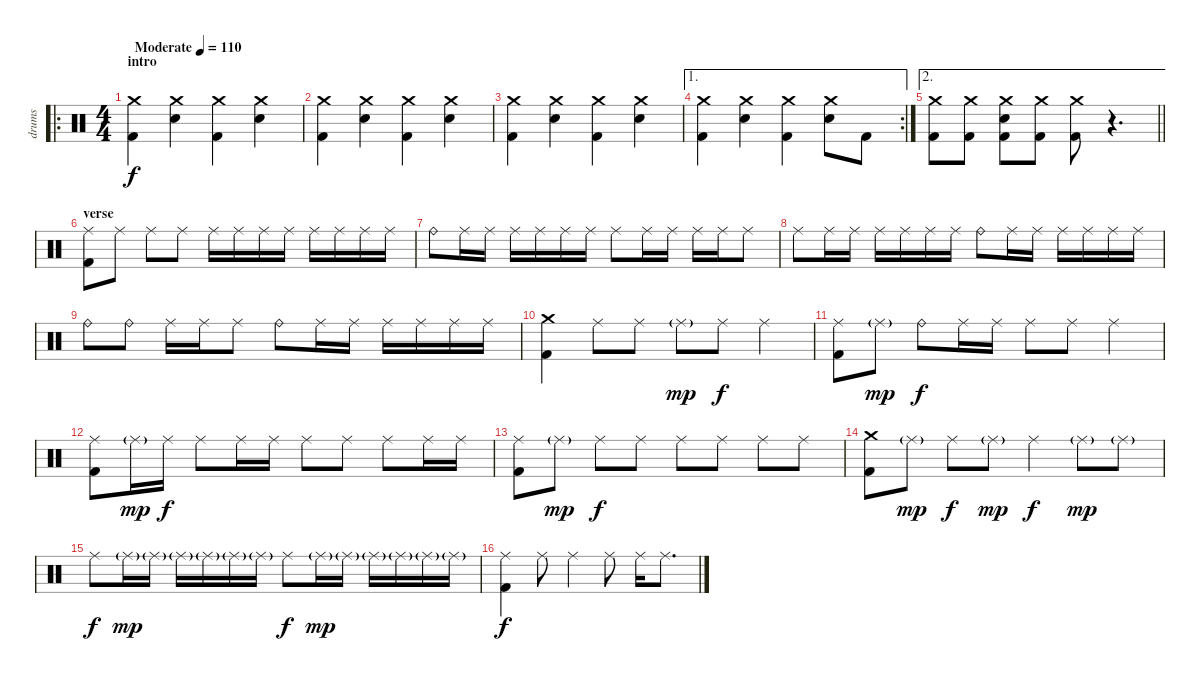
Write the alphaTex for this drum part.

\track ("drums" "drums") {instrument percussion}
\staff {score}
\articulation defaults
\ro
\ts (4 4)
\section ("" "intro")
\tempo (110 "Moderate")
\clef neutral
\ks c
("Crash medium (hit)" "Kick (hit) 2").4{dy f} ("Crash medium (hit)" "Electric Snare (hit)").4 ("Crash medium (hit)" "Kick (hit) 2").4 ("Crash medium (hit)" "Electric Snare (hit)").4 |
("Crash medium (hit)" "Kick (hit) 2").4 ("Crash medium (hit)" "Electric Snare (hit)").4 ("Crash medium (hit)" "Kick (hit) 2").4 ("Crash medium (hit)" "Electric Snare (hit)").4 |
("Crash medium (hit)" "Kick (hit) 2").4 ("Crash medium (hit)" "Electric Snare (hit)").4 ("Crash medium (hit)" "Kick (hit) 2").4 ("Crash medium (hit)" "Electric Snare (hit)").4 |
\ae 1
\rc 2
("Crash medium (hit)" "Kick (hit) 2").4 ("Crash medium (hit)" "Electric Snare (hit)").4 ("Crash medium (hit)" "Kick (hit) 2").4 ("Crash medium (hit)" "Electric Snare (hit)").8 "Kick (hit) 2".8 |
\ae 2
\barLineRight lightlight
("Crash medium (hit)" "Kick (hit) 2").8 ("Crash medium (hit)" "Kick (hit) 2").8 ("Crash medium (hit)" "Electric Snare (hit)" "Kick (hit) 2").8 ("Crash medium (hit)" "Kick (hit) 2").8 ("Crash medium (hit)" "Kick (hit) 2").8 r.4{d} |
\section ("" "verse")
("Ride (middle)" "Kick (hit) 2").8 "Ride (middle)".8 "Ride (middle)".8 "Ride (middle)".8 "Ride (middle)".16 "Ride (middle)".16 "Ride (middle)".16 "Ride (middle)".16 "Ride (middle)".16 "Ride (middle)".16 "Ride (middle)".16 "Ride (middle)".16 |
"Ride (bell)".8 "Ride (middle)".16 "Ride (middle)".16 "Ride (middle)".16 "Ride (middle)".16 "Ride (middle)".16 "Ride (middle)".16 "Ride (middle)".8 "Ride (middle)".16 "Ride (middle)".16 "Ride (middle)".16 "Ride (middle)".16 "Ride (middle)".8 |
"Ride (middle)".8 "Ride (middle)".16 "Ride (middle)".16 "Ride (middle)".16 "Ride (middle)".16 "Ride (middle)".16 "Ride (middle)".16 "Ride (bell)".8 "Ride (middle)".16 "Ride (middle)".16 "Ride (middle)".16 "Ride (middle)".16 "Ride (middle)".16 "Ride (middle)".16 |
"Ride (bell)".8 "Ride (bell)".8 "Ride (middle)".16 "Ride (middle)".16 "Ride (middle)".8 "Ride (bell)".8 "Ride (middle)".16 "Ride (middle)".16 "Ride (middle)".16 "Ride (middle)".16 "Ride (middle)".16 "Ride (middle)".16 |
("Crash medium (hit)" "Kick (hit) 2").4 "Ride (middle)".8 "Ride (middle)".8 "Ride (middle)"{g}.8{dy mp} "Ride (middle)".8{dy f} "Ride (middle)".4 |
("Ride (middle)" "Kick (hit) 2").8 "Ride (middle)"{g}.8{dy mp} "Ride (bell)".8{dy f} "Ride (middle)".16 "Ride (middle)".16 "Ride (middle)".8 "Ride (middle)".8 "Ride (middle)".4 |
("Ride (middle)" "Kick (hit) 2").8 "Ride (middle)"{g}.16{dy mp} "Ride (middle)".16{dy f} "Ride (middle)".8 "Ride (middle)".16 "Ride (middle)".16 "Ride (middle)".8 "Ride (middle)".8 "Ride (middle)".8 "Ride (middle)".16 "Ride (middle)".16 |
("Ride (middle)" "Kick (hit) 2").8 "Ride (middle)"{g}.8{dy mp} "Ride (middle)".8{dy f} "Ride (middle)".8 "Ride (middle)".8 "Ride (middle)".8 "Ride (middle)".8 "Ride (middle)".8 |
("Crash medium (hit)" "Kick (hit) 2").8 "Ride (middle)"{g}.8{dy mp} "Ride (middle)".8{dy f} "Ride (middle)"{g}.8{dy mp} "Ride (middle)".4{dy f} "Ride (middle)"{g}.8{dy mp} "Ride (middle)"{g}.8 |
"Ride (middle)".8{dy f} "Ride (middle)"{g}.16{dy mp} "Ride (middle)"{g}.16 "Ride (middle)"{g}.16 "Ride (middle)"{g}.16 "Ride (middle)"{g}.16 "Ride (middle)"{g}.16 "Ride (middle)".8{dy f} "Ride (middle)"{g}.16{dy mp} "Ride (middle)"{g}.16 "Ride (middle)"{g}.16 "Ride (middle)"{g}.16 "Ride (middle)"{g}.16 "Ride (middle)"{g}.16 |
("Ride (middle)" "Kick (hit) 2").4{dy f} "Ride (middle)".8 "Ride (middle)".4 "Ride (middle)".8 "Ride (middle)".16 "Ride (middle)".8{d}
